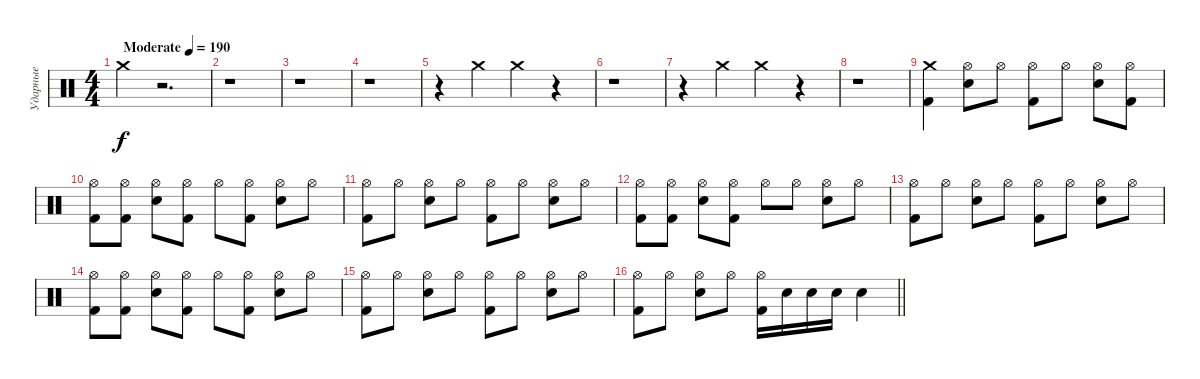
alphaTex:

\track ("Ударные" "Ударные") {instrument percussion}
\staff {score}
\articulation defaults
\ts (4 4)
\tempo (190 "Moderate")
\clef neutral
\ks c "Crash medium (hit)".4{dy f volume 9}
r.2{d} |
r.1 |
r.1 |
r.1 |
r.4 "Crash medium (hit)".4 "Crash medium (hit)".4 r.4 |
r.1 |
r.4 "Crash medium (hit)".4 "Crash medium (hit)".4 r.4 |
r.1 |
("Crash medium (hit)" "Kick (hit) 2").4{volume 13} ("Hi-Hat (open)" "Electric Snare (hit)").8 "Hi-Hat (open)".8 ("Hi-Hat (open)" "Kick (hit) 2").8 "Hi-Hat (open)".8 ("Hi-Hat (open)" "Electric Snare (hit)").8 ("Hi-Hat (open)" "Kick (hit) 2").8 |
("Hi-Hat (open)" "Kick (hit) 2").8 ("Hi-Hat (open)" "Kick (hit) 2").8 ("Hi-Hat (open)" "Electric Snare (hit)").8 ("Hi-Hat (open)" "Kick (hit) 2").8 "Hi-Hat (open)".8 ("Hi-Hat (open)" "Kick (hit) 2").8 ("Hi-Hat (open)" "Electric Snare (hit)").8 "Hi-Hat (open)".8 |
("Hi-Hat (open)" "Kick (hit) 2").8 "Hi-Hat (open)".8 ("Hi-Hat (open)" "Electric Snare (hit)").8 "Hi-Hat (open)".8 ("Hi-Hat (open)" "Kick (hit) 2").8 "Hi-Hat (open)".8 ("Hi-Hat (open)" "Electric Snare (hit)").8 "Hi-Hat (open)".8 |
("Hi-Hat (open)" "Kick (hit) 2").8 ("Hi-Hat (open)" "Kick (hit) 2").8 ("Hi-Hat (open)" "Electric Snare (hit)").8 ("Hi-Hat (open)" "Kick (hit) 2").8 "Hi-Hat (open)".8 "Hi-Hat (open)".8 ("Hi-Hat (open)" "Electric Snare (hit)").8 "Hi-Hat (open)".8 |
("Hi-Hat (open)" "Kick (hit) 2").8 "Hi-Hat (open)".8 ("Hi-Hat (open)" "Electric Snare (hit)").8 "Hi-Hat (open)".8 ("Hi-Hat (open)" "Kick (hit) 2").8 "Hi-Hat (open)".8 ("Hi-Hat (open)" "Electric Snare (hit)").8 "Hi-Hat (open)".8 |
("Hi-Hat (open)" "Kick (hit) 2").8 ("Hi-Hat (open)" "Kick (hit) 2").8 ("Hi-Hat (open)" "Electric Snare (hit)").8 ("Hi-Hat (open)" "Kick (hit) 2").8 "Hi-Hat (open)".8 ("Hi-Hat (open)" "Kick (hit) 2").8 ("Hi-Hat (open)" "Electric Snare (hit)").8 "Hi-Hat (open)".8 |
("Hi-Hat (open)" "Kick (hit) 2").8 "Hi-Hat (open)".8 ("Hi-Hat (open)" "Electric Snare (hit)").8 "Hi-Hat (open)".8 ("Hi-Hat (open)" "Kick (hit) 2").8 "Hi-Hat (open)".8 ("Hi-Hat (open)" "Electric Snare (hit)").8 "Hi-Hat (open)".8 |
\barLineRight lightlight
("Hi-Hat (open)" "Kick (hit) 2").8 "Hi-Hat (open)".8 ("Hi-Hat (open)" "Electric Snare (hit)").8 "Hi-Hat (open)".8 ("Hi-Hat (open)" "Kick (hit) 2").16 "Electric Snare (hit)".16 "Electric Snare (hit)".16 "Electric Snare (hit)".16 "Electric Snare (hit)".4
